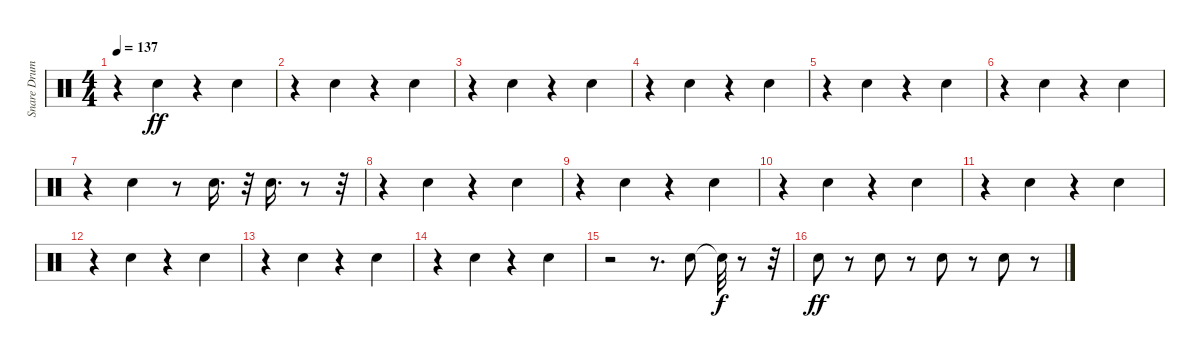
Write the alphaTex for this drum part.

\track ("Snare Drum" "Snare Drum") {instrument percussion}
\staff {score}
\articulation defaults
\ts (4 4)
\tempo 137
\clef neutral
\ks c
r.4{dy ff} "Snare (hit) 2".4 r.4 "Snare (hit) 2".4 |
r.4 "Snare (hit) 2".4 r.4 "Snare (hit) 2".4 |
r.4 "Snare (hit) 2".4 r.4 "Snare (hit) 2".4 |
r.4 "Snare (hit) 2".4 r.4 "Snare (hit) 2".4 |
r.4 "Snare (hit) 2".4 r.4 "Snare (hit) 2".4 |
r.4 "Snare (hit) 2".4 r.4 "Snare (hit) 2".4 |
r.4 "Snare (hit) 2".4 r.8 "Snare (hit) 2".16{d} r.32 "Snare (hit) 2".16{d} r.8 r.32 |
r.4 "Snare (hit) 2".4 r.4 "Snare (hit) 2".4 |
r.4 "Snare (hit) 2".4 r.4 "Snare (hit) 2".4 |
r.4 "Snare (hit) 2".4 r.4 "Snare (hit) 2".4 |
r.4 "Snare (hit) 2".4 r.4 "Snare (hit) 2".4 |
r.4 "Snare (hit) 2".4 r.4 "Snare (hit) 2".4 |
r.4 "Snare (hit) 2".4 r.4 "Snare (hit) 2".4 |
r.4 "Snare (hit) 2".4 r.4 "Snare (hit) 2".4 |
r.2 r.8{d} "Snare (hit) 2".8 "Snare (hit)"{t}.32{dy f} r.8 r.32 |
"Snare (hit) 2".8{dy ff} r.8 "Snare (hit) 2".8 r.8 "Snare (hit) 2".8 r.8 "Snare (hit) 2".8 r.8
